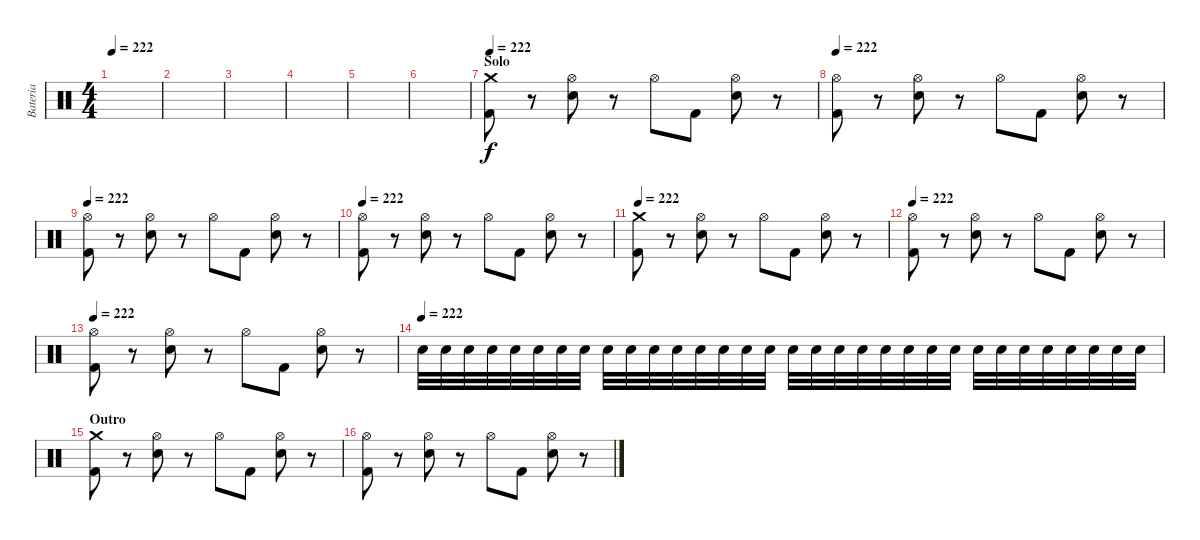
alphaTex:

\track ("Bateria" "Bateria") {instrument percussion}
\staff {score}
\articulation defaults
\ts (4 4)
\tempo 222
\clef neutral
\ks c
|
|
|
|
|
|
\section ("" "Solo")
\tempo 222
("Crash medium (hit)" "Kick (hit) 2").8 r.8 ("Hi-Hat (open)" "Electric Snare (hit)").8 r.8 "Hi-Hat (open)".8 "Kick (hit) 2".8 ("Hi-Hat (open)" "Electric Snare (hit)").8 r.8 |
\tempo 222
("Hi-Hat (open)" "Kick (hit) 2").8 r.8 ("Hi-Hat (open)" "Electric Snare (hit)").8 r.8 "Hi-Hat (open)".8 "Kick (hit) 2".8 ("Hi-Hat (open)" "Electric Snare (hit)").8 r.8 |
\tempo 222
("Hi-Hat (open)" "Kick (hit) 2").8 r.8 ("Hi-Hat (open)" "Electric Snare (hit)").8 r.8 "Hi-Hat (open)".8 "Kick (hit) 2".8 ("Hi-Hat (open)" "Electric Snare (hit)").8 r.8 |
\tempo 222
("Hi-Hat (open)" "Kick (hit) 2").8 r.8 ("Hi-Hat (open)" "Electric Snare (hit)").8 r.8 "Hi-Hat (open)".8 "Kick (hit) 2".8 ("Hi-Hat (open)" "Electric Snare (hit)").8 r.8 |
\tempo 222
("Crash medium (hit)" "Kick (hit) 2").8 r.8 ("Hi-Hat (open)" "Electric Snare (hit)").8 r.8 "Hi-Hat (open)".8 "Kick (hit) 2".8 ("Hi-Hat (open)" "Electric Snare (hit)").8 r.8 |
\tempo 222
("Hi-Hat (open)" "Kick (hit) 2").8 r.8 ("Hi-Hat (open)" "Electric Snare (hit)").8 r.8 "Hi-Hat (open)".8 "Kick (hit) 2".8 ("Hi-Hat (open)" "Electric Snare (hit)").8 r.8 |
\tempo 222
("Hi-Hat (open)" "Kick (hit) 2").8 r.8 ("Hi-Hat (open)" "Electric Snare (hit)").8 r.8 "Hi-Hat (open)".8 "Kick (hit) 2".8 ("Hi-Hat (open)" "Electric Snare (hit)").8 r.8 |
\tempo (222)
"Electric Snare (hit)".32{volume 10} "Electric Snare (hit)".32 "Electric Snare (hit)".32 "Electric Snare (hit)".32 "Electric Snare (hit)".32 "Electric Snare (hit)".32 "Electric Snare (hit)".32 "Electric Snare (hit)".32 "Electric Snare (hit)".32 "Electric Snare (hit)".32 "Electric Snare (hit)".32 "Electric Snare (hit)".32 "Electric Snare (hit)".32 "Electric Snare (hit)".32 "Electric Snare (hit)".32 "Electric Snare (hit)".32 "Electric Snare (hit)".32 "Electric Snare (hit)".32 "Electric Snare (hit)".32 "Electric Snare (hit)".32 "Electric Snare (hit)".32 "Electric Snare (hit)".32 "Electric Snare (hit)".32 "Electric Snare (hit)".32 "Electric Snare (hit)".32 "Electric Snare (hit)".32 "Electric Snare (hit)".32 "Electric Snare (hit)".32 "Electric Snare (hit)".32 "Electric Snare (hit)".32 "Electric Snare (hit)".32 "Electric Snare (hit)".32 |
\section ("" "Outro")
("Crash medium (hit)" "Kick (hit) 2").8{volume 13} r.8 ("Hi-Hat (open)" "Electric Snare (hit)").8 r.8 "Hi-Hat (open)".8 "Kick (hit) 2".8 ("Hi-Hat (open)" "Electric Snare (hit)").8 r.8 |
("Hi-Hat (open)" "Kick (hit) 2").8 r.8 ("Hi-Hat (open)" "Electric Snare (hit)").8 r.8 "Hi-Hat (open)".8 "Kick (hit) 2".8 ("Hi-Hat (open)" "Electric Snare (hit)").8 r.8
